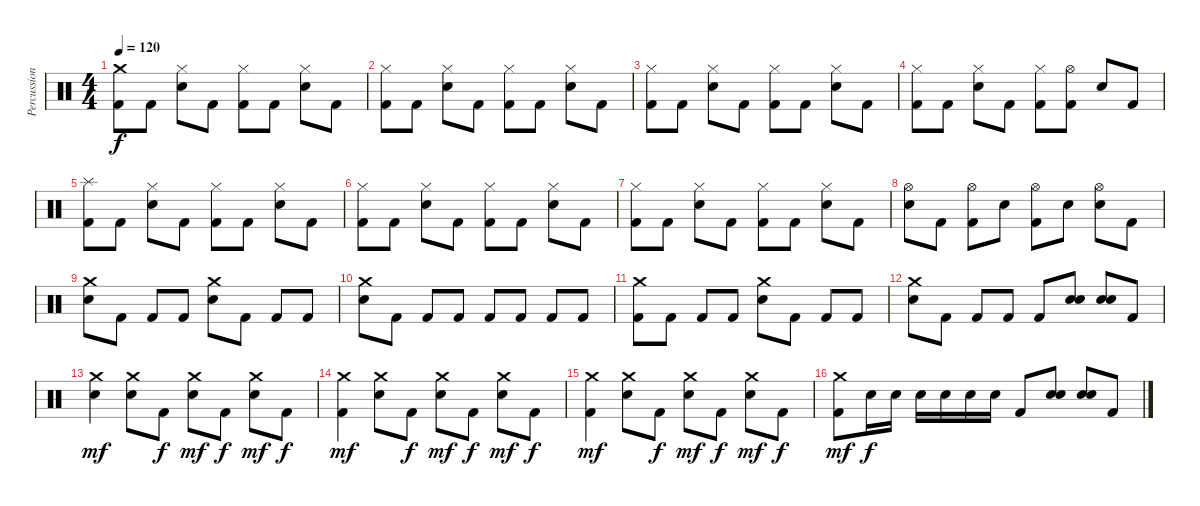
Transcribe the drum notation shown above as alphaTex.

\track ("Percussion" "Percussion") {instrument percussion}
\staff {score}
\articulation defaults
\ts (4 4)
\tempo 120
\clef neutral
\ks c
("Crash medium (hit)" "Kick (hit) 2").8{dy f} "Kick (hit) 2".8 ("Hi-Hat (closed)" "Electric Snare (hit)").8 "Kick (hit) 2".8 ("Hi-Hat (closed)" "Kick (hit) 2").8 "Kick (hit) 2".8 ("Hi-Hat (closed)" "Electric Snare (hit)").8 "Kick (hit) 2".8 |
("Hi-Hat (closed)" "Kick (hit) 2").8 "Kick (hit) 2".8 ("Hi-Hat (closed)" "Electric Snare (hit)").8 "Kick (hit) 2".8 ("Hi-Hat (closed)" "Kick (hit) 2").8 "Kick (hit) 2".8 ("Hi-Hat (closed)" "Electric Snare (hit)").8 "Kick (hit) 2".8 |
("Hi-Hat (closed)" "Kick (hit) 2").8 "Kick (hit) 2".8 ("Hi-Hat (closed)" "Electric Snare (hit)").8 "Kick (hit) 2".8 ("Hi-Hat (closed)" "Kick (hit) 2").8 "Kick (hit) 2".8 ("Hi-Hat (closed)" "Electric Snare (hit)").8 "Kick (hit) 2".8 |
("Hi-Hat (closed)" "Kick (hit) 2").8 "Kick (hit) 2".8 ("Hi-Hat (closed)" "Electric Snare (hit)").8 "Kick (hit) 2".8 ("Hi-Hat (closed)" "Kick (hit) 2").8 ("Hi-Hat (open)" "Kick (hit) 2").8 "Electric Snare (hit)".8 "Kick (hit) 2".8 |
("Splash (hit)" "Kick (hit) 2").8 "Kick (hit) 2".8 ("Hi-Hat (closed)" "Electric Snare (hit)").8 "Kick (hit) 2".8 ("Hi-Hat (closed)" "Kick (hit) 2").8 "Kick (hit) 2".8 ("Hi-Hat (closed)" "Electric Snare (hit)").8 "Kick (hit) 2".8 |
("Hi-Hat (closed)" "Kick (hit) 2").8 "Kick (hit) 2".8 ("Hi-Hat (closed)" "Electric Snare (hit)").8 "Kick (hit) 2".8 ("Hi-Hat (closed)" "Kick (hit) 2").8 "Kick (hit) 2".8 ("Hi-Hat (closed)" "Electric Snare (hit)").8 "Kick (hit) 2".8 |
("Hi-Hat (closed)" "Kick (hit) 2").8 "Kick (hit) 2".8 ("Hi-Hat (closed)" "Electric Snare (hit)").8 "Kick (hit) 2".8 ("Hi-Hat (closed)" "Kick (hit) 2").8 "Kick (hit) 2".8 ("Hi-Hat (closed)" "Electric Snare (hit)").8 "Kick (hit) 2".8 |
("Hi-Hat (open)" "Electric Snare (hit)").8 "Kick (hit) 2".8 ("Hi-Hat (open)" "Kick (hit) 2").8 "Electric Snare (hit)".8 ("Hi-Hat (open)" "Kick (hit) 2").8 "Electric Snare (hit)".8 ("Hi-Hat (open)" "Electric Snare (hit)").8 "Kick (hit) 2".8 |
("Crash medium (hit)" "Electric Snare (hit)").8 "Kick (hit) 2".8 "Kick (hit) 2".8 "Kick (hit) 2".8 ("Crash medium (hit)" "Electric Snare (hit)").8 "Kick (hit) 2".8 "Kick (hit) 2".8 "Kick (hit) 2".8 |
("Crash medium (hit)" "Electric Snare (hit)").8 "Kick (hit) 2".8 "Kick (hit) 2".8 "Kick (hit) 2".8 "Kick (hit) 2".8 "Kick (hit) 2".8 "Kick (hit) 2".8 "Kick (hit) 2".8 |
("Crash medium (hit)" "Kick (hit) 2").8 "Kick (hit) 2".8 "Kick (hit) 2".8 "Kick (hit) 2".8 ("Crash medium (hit)" "Electric Snare (hit)").8 "Kick (hit) 2".8 "Kick (hit) 2".8 "Kick (hit) 2".8 |
("Crash medium (hit)" "Electric Snare (hit)").8 "Kick (hit) 2".8 "Kick (hit) 2".8 "Kick (hit) 2".8 "Kick (hit) 2".8 ("Electric Snare (hit)" "Electric Snare (hit)").8 ("Electric Snare (hit)" "Electric Snare (hit)").8 "Kick (hit) 2".8 |
("Crash medium (hit)" "Electric Snare (hit)").4{dy mf} ("Crash medium (hit)" "Electric Snare (hit)").8 "Kick (hit) 2".8{dy f} ("Crash medium (hit)" "Electric Snare (hit)").8{dy mf} "Kick (hit) 2".8{dy f} ("Crash medium (hit)" "Electric Snare (hit)").8{dy mf} "Kick (hit) 2".8{dy f} |
("Crash medium (hit)" "Kick (hit) 2").4{dy mf} ("Crash medium (hit)" "Electric Snare (hit)").8 "Kick (hit) 2".8{dy f} ("Crash medium (hit)" "Electric Snare (hit)").8{dy mf} "Kick (hit) 2".8{dy f} ("Crash medium (hit)" "Electric Snare (hit)").8{dy mf} "Kick (hit) 2".8{dy f} |
("Crash medium (hit)" "Kick (hit) 2").4{dy mf} ("Crash medium (hit)" "Electric Snare (hit)").8 "Kick (hit) 2".8{dy f} ("Crash medium (hit)" "Electric Snare (hit)").8{dy mf} "Kick (hit) 2".8{dy f} ("Crash medium (hit)" "Electric Snare (hit)").8{dy mf} "Kick (hit) 2".8{dy f} |
("Crash medium (hit)" "Kick (hit) 2").8{dy mf} "Electric Snare (hit)".16{dy f} "Electric Snare (hit)".16 "Electric Snare (hit)".16 "Electric Snare (hit)".16 "Electric Snare (hit)".16 "Electric Snare (hit)".16 "Kick (hit) 2".8 ("Electric Snare (hit)" "Electric Snare (hit)").8 ("Electric Snare (hit)" "Electric Snare (hit)").8 "Kick (hit) 2".8
